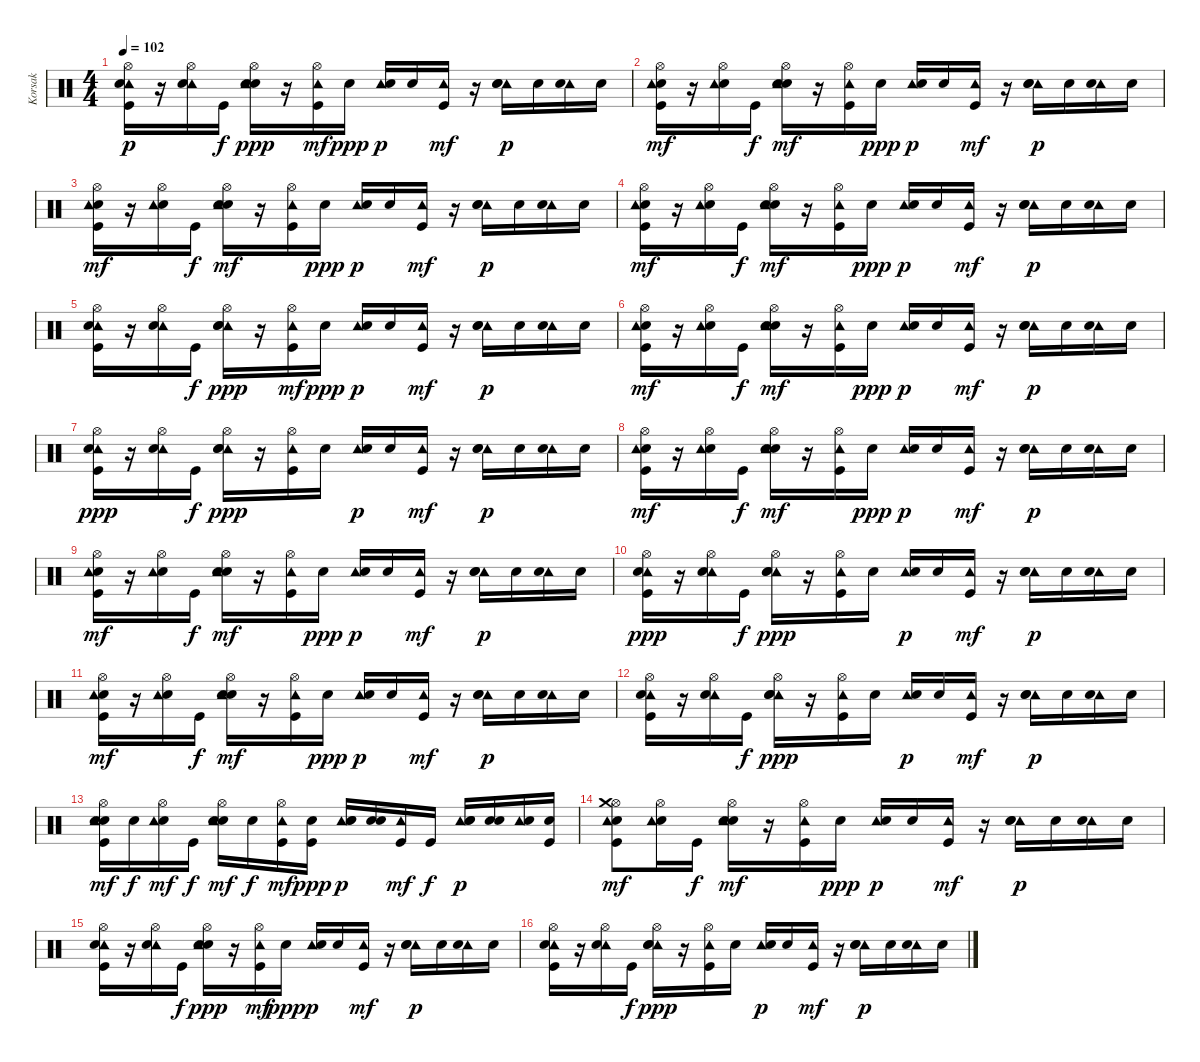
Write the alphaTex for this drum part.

\track ("Korsak" "Korsak") {instrument percussion}
\staff {score}
\articulation defaults
\ts (4 4)
\tempo 102
\clef neutral
\ks c
("Kick (hit)" "Hi-Hat (open)" "Tambourine (hit)" "Electric Snare (hit)").16{dy p} r.16 ("Hi-Hat (open)" "Tambourine (hit)" "Electric Snare (hit)").16 "Kick (hit)".16{dy f} ("Snare (hit) 2" "Hi-Hat (open)" "Tambourine (hit)" "Electric Snare (hit)").16{dy ppp} r.16 ("Kick (hit)" "Hi-Hat (open)" "Tambourine (hit)").16{dy mf} "Electric Snare (hit)".16{dy ppp} ("Tambourine (hit)" "Electric Snare (hit)").16{dy p} "Electric Snare (hit)".16 ("Kick (hit)" "Tambourine (hit)").16{dy mf} r.16 ("Tambourine (hit)" "Electric Snare (hit)" "Snare (hit) 2").16{dy p} "Electric Snare (hit)".16 ("Tambourine (hit)" "Electric Snare (hit)").16 "Electric Snare (hit)".16 |
("Kick (hit)" "Electric Snare (hit)" "Hi-Hat (open)" "Tambourine (hit)").16{dy mf} r.16 ("Electric Snare (hit)" "Hi-Hat (open)" "Tambourine (hit)").16 "Kick (hit)".16{dy f} ("Snare (hit) 2" "Electric Snare (hit)" "Hi-Hat (open)" "Tambourine (hit)").16{dy mf} r.16 ("Kick (hit)" "Hi-Hat (open)" "Tambourine (hit)").16 "Electric Snare (hit)".16{dy ppp} ("Tambourine (hit)" "Electric Snare (hit)").16{dy p} "Electric Snare (hit)".16 ("Kick (hit)" "Tambourine (hit)").16{dy mf} r.16 ("Tambourine (hit)" "Electric Snare (hit)" "Snare (hit) 2").16{dy p} "Electric Snare (hit)".16 ("Tambourine (hit)" "Electric Snare (hit)").16 "Electric Snare (hit)".16 |
("Hi-Hat (open)" "Electric Snare (hit)" "Kick (hit)" "Tambourine (hit)").16{dy mf} r.16 ("Hi-Hat (open)" "Electric Snare (hit)" "Tambourine (hit)").16 "Kick (hit)".16{dy f} ("Hi-Hat (open)" "Electric Snare (hit)" "Snare (hit) 2" "Tambourine (hit)").16{dy mf} r.16 ("Hi-Hat (open)" "Kick (hit)" "Tambourine (hit)").16 "Electric Snare (hit)".16{dy ppp} ("Tambourine (hit)" "Electric Snare (hit)").16{dy p} "Electric Snare (hit)".16 ("Kick (hit)" "Tambourine (hit)").16{dy mf} r.16 ("Tambourine (hit)" "Electric Snare (hit)" "Snare (hit) 2").16{dy p} "Electric Snare (hit)".16 ("Tambourine (hit)" "Electric Snare (hit)").16 "Electric Snare (hit)".16 |
("Kick (hit)" "Hi-Hat (open)" "Electric Snare (hit)" "Tambourine (hit)").16{dy mf} r.16 ("Hi-Hat (open)" "Electric Snare (hit)" "Tambourine (hit)").16 "Kick (hit)".16{dy f} ("Snare (hit) 2" "Hi-Hat (open)" "Electric Snare (hit)" "Tambourine (hit)").16{dy mf} r.16 ("Kick (hit)" "Hi-Hat (open)" "Tambourine (hit)").16 "Electric Snare (hit)".16{dy ppp} ("Tambourine (hit)" "Electric Snare (hit)").16{dy p} "Electric Snare (hit)".16 ("Kick (hit)" "Tambourine (hit)").16{dy mf} r.16 ("Tambourine (hit)" "Electric Snare (hit)" "Snare (hit) 2").16{dy p} "Electric Snare (hit)".16 ("Tambourine (hit)" "Electric Snare (hit)").16 "Electric Snare (hit)".16 |
("Hi-Hat (open)" "Tambourine (hit)" "Electric Snare (hit)" "Kick (hit)").16 r.16 ("Hi-Hat (open)" "Tambourine (hit)" "Electric Snare (hit)").16 "Kick (hit)".16{dy f} ("Hi-Hat (open)" "Tambourine (hit)" "Electric Snare (hit)" "Snare (hit) 2").16{dy ppp} r.16 ("Hi-Hat (open)" "Tambourine (hit)" "Kick (hit)").16{dy mf} "Electric Snare (hit)".16{dy ppp} ("Tambourine (hit)" "Electric Snare (hit)").16{dy p} "Electric Snare (hit)".16 ("Tambourine (hit)" "Kick (hit)").16{dy mf} r.16 ("Tambourine (hit)" "Electric Snare (hit)" "Snare (hit) 2").16{dy p} "Electric Snare (hit)".16 ("Tambourine (hit)" "Electric Snare (hit)").16 "Electric Snare (hit)".16 |
("Kick (hit)" "Electric Snare (hit)" "Hi-Hat (open)" "Tambourine (hit)").16{dy mf} r.16 ("Electric Snare (hit)" "Hi-Hat (open)" "Tambourine (hit)").16 "Kick (hit)".16{dy f} ("Snare (hit) 2" "Electric Snare (hit)" "Hi-Hat (open)" "Tambourine (hit)").16{dy mf} r.16 ("Kick (hit)" "Hi-Hat (open)" "Tambourine (hit)").16 "Electric Snare (hit)".16{dy ppp} ("Tambourine (hit)" "Electric Snare (hit)").16{dy p} "Electric Snare (hit)".16 ("Kick (hit)" "Tambourine (hit)").16{dy mf} r.16 ("Tambourine (hit)" "Electric Snare (hit)" "Snare (hit) 2").16{dy p} "Electric Snare (hit)".16 ("Tambourine (hit)" "Electric Snare (hit)").16 "Electric Snare (hit)".16 |
("Tambourine (hit)" "Electric Snare (hit)" "Hi-Hat (open)" "Kick (hit)").16{dy ppp} r.16 ("Tambourine (hit)" "Electric Snare (hit)" "Hi-Hat (open)").16 "Kick (hit)".16{dy f} ("Tambourine (hit)" "Electric Snare (hit)" "Hi-Hat (open)" "Snare (hit) 2").16{dy ppp} r.16 ("Tambourine (hit)" "Hi-Hat (open)" "Kick (hit)").16 "Electric Snare (hit)".16 ("Tambourine (hit)" "Electric Snare (hit)").16{dy p} "Electric Snare (hit)".16 ("Tambourine (hit)" "Kick (hit)").16{dy mf} r.16 ("Tambourine (hit)" "Electric Snare (hit)" "Snare (hit) 2").16{dy p} "Electric Snare (hit)".16 ("Tambourine (hit)" "Electric Snare (hit)").16 "Electric Snare (hit)".16 |
("Electric Snare (hit)" "Hi-Hat (open)" "Kick (hit)" "Tambourine (hit)").16{dy mf} r.16 ("Electric Snare (hit)" "Hi-Hat (open)" "Tambourine (hit)").16 "Kick (hit)".16{dy f} ("Electric Snare (hit)" "Hi-Hat (open)" "Snare (hit) 2" "Tambourine (hit)").16{dy mf} r.16 ("Hi-Hat (open)" "Kick (hit)" "Tambourine (hit)").16 "Electric Snare (hit)".16{dy ppp} ("Tambourine (hit)" "Electric Snare (hit)").16{dy p} "Electric Snare (hit)".16 ("Kick (hit)" "Tambourine (hit)").16{dy mf} r.16 ("Tambourine (hit)" "Electric Snare (hit)" "Snare (hit) 2").16{dy p} "Electric Snare (hit)".16 ("Tambourine (hit)" "Electric Snare (hit)").16 "Electric Snare (hit)".16 |
("Hi-Hat (open)" "Kick (hit)" "Electric Snare (hit)" "Tambourine (hit)").16{dy mf} r.16 ("Hi-Hat (open)" "Electric Snare (hit)" "Tambourine (hit)").16 "Kick (hit)".16{dy f} ("Hi-Hat (open)" "Snare (hit) 2" "Electric Snare (hit)" "Tambourine (hit)").16{dy mf} r.16 ("Hi-Hat (open)" "Kick (hit)" "Tambourine (hit)").16 "Electric Snare (hit)".16{dy ppp} ("Tambourine (hit)" "Electric Snare (hit)").16{dy p} "Electric Snare (hit)".16 ("Kick (hit)" "Tambourine (hit)").16{dy mf} r.16 ("Tambourine (hit)" "Electric Snare (hit)" "Snare (hit) 2").16{dy p} "Electric Snare (hit)".16 ("Tambourine (hit)" "Electric Snare (hit)").16 "Electric Snare (hit)".16 |
("Tambourine (hit)" "Electric Snare (hit)" "Hi-Hat (open)" "Kick (hit)").16{dy ppp} r.16 ("Tambourine (hit)" "Electric Snare (hit)" "Hi-Hat (open)").16 "Kick (hit)".16{dy f} ("Tambourine (hit)" "Electric Snare (hit)" "Hi-Hat (open)" "Snare (hit) 2").16{dy ppp} r.16 ("Tambourine (hit)" "Hi-Hat (open)" "Kick (hit)").16 "Electric Snare (hit)".16 ("Tambourine (hit)" "Electric Snare (hit)").16{dy p} "Electric Snare (hit)".16 ("Tambourine (hit)" "Kick (hit)").16{dy mf} r.16 ("Tambourine (hit)" "Electric Snare (hit)" "Snare (hit) 2").16{dy p} "Electric Snare (hit)".16 ("Tambourine (hit)" "Electric Snare (hit)").16 "Electric Snare (hit)".16 |
("Kick (hit)" "Electric Snare (hit)" "Hi-Hat (open)" "Tambourine (hit)").16{dy mf} r.16 ("Electric Snare (hit)" "Hi-Hat (open)" "Tambourine (hit)").16 "Kick (hit)".16{dy f} ("Snare (hit) 2" "Electric Snare (hit)" "Hi-Hat (open)" "Tambourine (hit)").16{dy mf} r.16 ("Kick (hit)" "Hi-Hat (open)" "Tambourine (hit)").16 "Electric Snare (hit)".16{dy ppp} ("Tambourine (hit)" "Electric Snare (hit)").16{dy p} "Electric Snare (hit)".16 ("Kick (hit)" "Tambourine (hit)").16{dy mf} r.16 ("Tambourine (hit)" "Electric Snare (hit)" "Snare (hit) 2").16{dy p} "Electric Snare (hit)".16 ("Tambourine (hit)" "Electric Snare (hit)").16 "Electric Snare (hit)".16 |
("Tambourine (hit)" "Hi-Hat (open)" "Kick (hit)" "Electric Snare (hit)").16 r.16 ("Tambourine (hit)" "Hi-Hat (open)" "Electric Snare (hit)").16 "Kick (hit)".16{dy f} ("Tambourine (hit)" "Hi-Hat (open)" "Snare (hit) 2" "Electric Snare (hit)").16{dy ppp} r.16 ("Tambourine (hit)" "Hi-Hat (open)" "Kick (hit)").16 "Electric Snare (hit)".16 ("Tambourine (hit)" "Electric Snare (hit)").16{dy p} "Electric Snare (hit)".16 ("Tambourine (hit)" "Kick (hit)").16{dy mf} r.16 ("Tambourine (hit)" "Electric Snare (hit)" "Snare (hit) 2").16{dy p} "Electric Snare (hit)".16 ("Tambourine (hit)" "Electric Snare (hit)").16 "Electric Snare (hit)".16 |
("Electric Snare (hit)" "Hi-Hat (open)" "Tambourine (hit)" "Kick (hit)" "Snare (hit) 2").16{dy mf} "Snare (hit) 2".16{dy f} ("Electric Snare (hit)" "Hi-Hat (open)" "Tambourine (hit)").16{dy mf} "Kick (hit)".16{dy f} ("Electric Snare (hit)" "Hi-Hat (open)" "Tambourine (hit)" "Snare (hit) 2").16{dy mf} "Snare (hit) 2".16{dy f} ("Kick (hit)" "Hi-Hat (open)" "Tambourine (hit)").16{dy mf} ("Kick (hit)" "Electric Snare (hit)").16{dy ppp} ("Tambourine (hit)" "Snare (hit) 2" "Electric Snare (hit)").16{dy p} ("Snare (hit) 2" "Electric Snare (hit)").16 ("Tambourine (hit)" "Kick (hit)").16{dy mf} "Kick (hit)".16{dy f} ("Tambourine (hit)" "Electric Snare (hit)" "Snare (hit) 2").16{dy p} ("Snare (hit) 2" "Electric Snare (hit)").16 ("Tambourine (hit)" "Electric Snare (hit)").16 ("Kick (hit)" "Electric Snare (hit)").16 |
("Electric Snare (hit)" "Hi-Hat (open)" "Crash medium (hit)" "Tambourine (hit)" "Kick (hit)").8{dy mf} ("Electric Snare (hit)" "Hi-Hat (open)" "Tambourine (hit)").16 "Kick (hit)".16{dy f} ("Electric Snare (hit)" "Hi-Hat (open)" "Tambourine (hit)" "Snare (hit) 2").16{dy mf} r.16 ("Hi-Hat (open)" "Tambourine (hit)" "Kick (hit)").16 "Electric Snare (hit)".16{dy ppp} ("Tambourine (hit)" "Electric Snare (hit)").16{dy p} "Electric Snare (hit)".16 ("Tambourine (hit)" "Kick (hit)").16{dy mf} r.16 ("Tambourine (hit)" "Electric Snare (hit)" "Snare (hit) 2").16{dy p} "Electric Snare (hit)".16 ("Tambourine (hit)" "Electric Snare (hit)").16 "Electric Snare (hit)".16 |
("Kick (hit)" "Hi-Hat (open)" "Tambourine (hit)" "Electric Snare (hit)").16 r.16 ("Hi-Hat (open)" "Tambourine (hit)" "Electric Snare (hit)").16 "Kick (hit)".16{dy f} ("Snare (hit) 2" "Hi-Hat (open)" "Tambourine (hit)" "Electric Snare (hit)").16{dy ppp} r.16 ("Kick (hit)" "Hi-Hat (open)" "Tambourine (hit)").16{dy mf} "Electric Snare (hit)".16{dy ppp} ("Tambourine (hit)" "Electric Snare (hit)").16{dy p} "Electric Snare (hit)".16 ("Kick (hit)" "Tambourine (hit)").16{dy mf} r.16 ("Tambourine (hit)" "Electric Snare (hit)" "Snare (hit) 2").16{dy p} "Electric Snare (hit)".16 ("Tambourine (hit)" "Electric Snare (hit)").16 "Electric Snare (hit)".16 |
("Tambourine (hit)" "Hi-Hat (open)" "Kick (hit)" "Electric Snare (hit)").16 r.16 ("Tambourine (hit)" "Hi-Hat (open)" "Electric Snare (hit)").16 "Kick (hit)".16{dy f} ("Tambourine (hit)" "Hi-Hat (open)" "Snare (hit) 2" "Electric Snare (hit)").16{dy ppp} r.16 ("Tambourine (hit)" "Hi-Hat (open)" "Kick (hit)").16 "Electric Snare (hit)".16 ("Tambourine (hit)" "Electric Snare (hit)").16{dy p} "Electric Snare (hit)".16 ("Tambourine (hit)" "Kick (hit)").16{dy mf} r.16 ("Tambourine (hit)" "Electric Snare (hit)" "Snare (hit) 2").16{dy p} "Electric Snare (hit)".16 ("Tambourine (hit)" "Electric Snare (hit)").16 "Electric Snare (hit)".16
